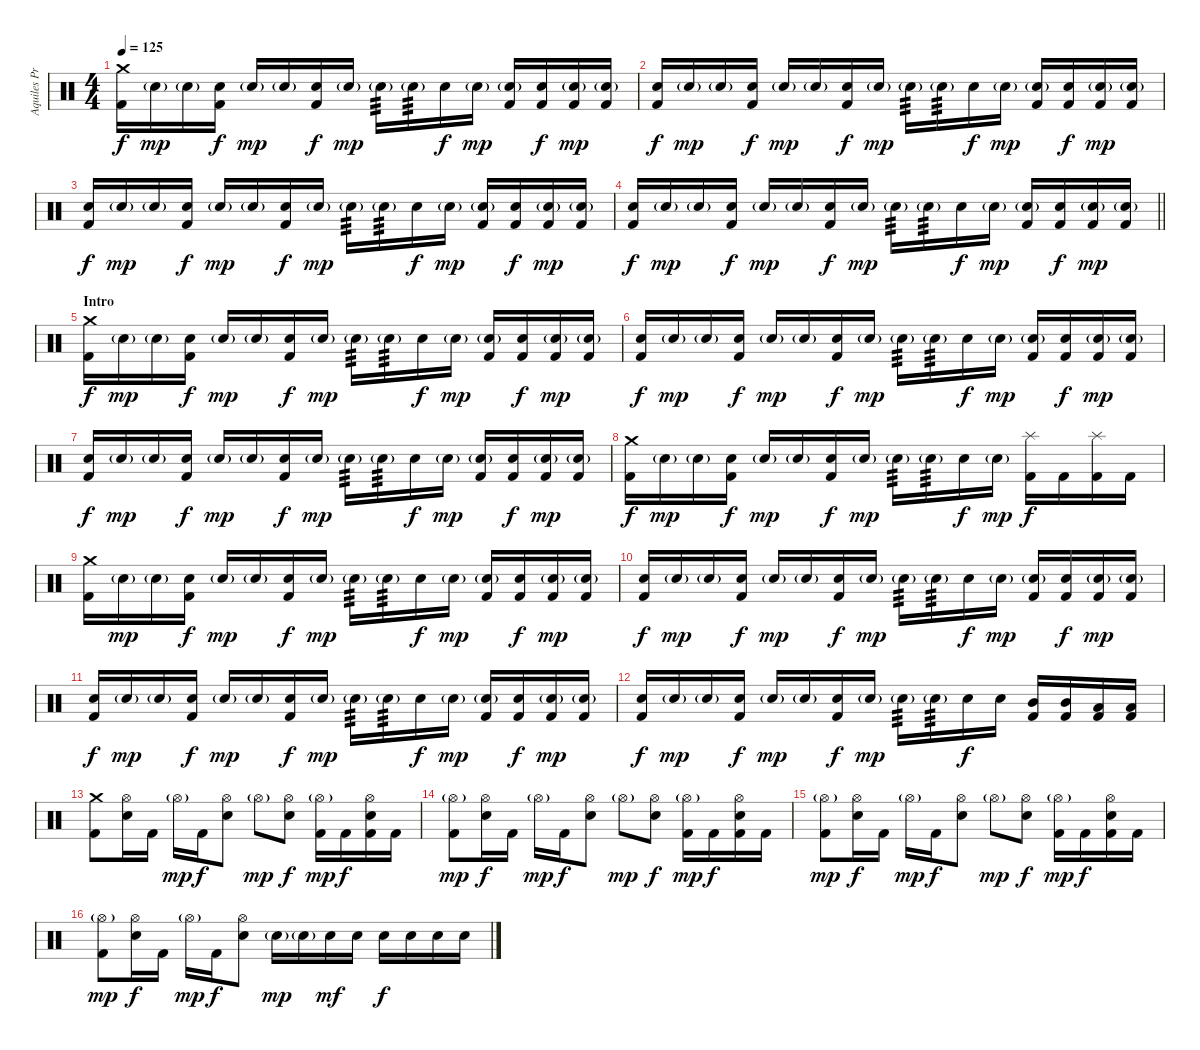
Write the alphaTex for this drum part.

\track ("Aquiles Priester" "Aquiles Pr") {instrument percussion}
\staff {score}
\articulation defaults
\ts (4 4)
\tempo 125
\clef neutral
\ks c
("Crash medium (hit)" "Kick (hit) 2").16{dy f} "Electric Snare (hit)"{g}.16{dy mp} "Electric Snare (hit)"{g}.16 ("Electric Snare (hit)" "Kick (hit) 2").16{dy f} "Electric Snare (hit)"{g}.16{dy mp} "Electric Snare (hit)"{g}.16 ("Electric Snare (hit)" "Kick (hit) 2").16{dy f} "Electric Snare (hit)"{g}.16{dy mp} "Electric Snare (hit)"{g}.16{tp 3} "Electric Snare (hit)"{g}.16{tp 3} "Electric Snare (hit)".16{dy f} "Electric Snare (hit)"{g}.16{dy mp} ("Electric Snare (hit)"{g} "Kick (hit) 2").16 ("Electric Snare (hit)" "Kick (hit) 2").16{dy f} ("Electric Snare (hit)"{g} "Kick (hit) 2").16{dy mp} ("Electric Snare (hit)"{g} "Kick (hit) 2").16 |
("Electric Snare (hit)" "Kick (hit) 2").16{dy f} "Electric Snare (hit)"{g}.16{dy mp} "Electric Snare (hit)"{g}.16 ("Electric Snare (hit)" "Kick (hit) 2").16{dy f} "Electric Snare (hit)"{g}.16{dy mp} "Electric Snare (hit)"{g}.16 ("Electric Snare (hit)" "Kick (hit) 2").16{dy f} "Electric Snare (hit)"{g}.16{dy mp} "Electric Snare (hit)"{g}.16{tp 3} "Electric Snare (hit)"{g}.16{tp 3} "Electric Snare (hit)".16{dy f} "Electric Snare (hit)"{g}.16{dy mp} ("Electric Snare (hit)"{g} "Kick (hit) 2").16 ("Electric Snare (hit)" "Kick (hit) 2").16{dy f} ("Electric Snare (hit)"{g} "Kick (hit) 2").16{dy mp} ("Electric Snare (hit)"{g} "Kick (hit) 2").16 |
("Electric Snare (hit)" "Kick (hit) 2").16{dy f} "Electric Snare (hit)"{g}.16{dy mp} "Electric Snare (hit)"{g}.16 ("Electric Snare (hit)" "Kick (hit) 2").16{dy f} "Electric Snare (hit)"{g}.16{dy mp} "Electric Snare (hit)"{g}.16 ("Electric Snare (hit)" "Kick (hit) 2").16{dy f} "Electric Snare (hit)"{g}.16{dy mp} "Electric Snare (hit)"{g}.16{tp 3} "Electric Snare (hit)"{g}.16{tp 3} "Electric Snare (hit)".16{dy f} "Electric Snare (hit)"{g}.16{dy mp} ("Electric Snare (hit)"{g} "Kick (hit) 2").16 ("Electric Snare (hit)" "Kick (hit) 2").16{dy f} ("Electric Snare (hit)"{g} "Kick (hit) 2").16{dy mp} ("Electric Snare (hit)"{g} "Kick (hit) 2").16 |
\barLineRight lightlight
("Electric Snare (hit)" "Kick (hit) 2").16{dy f} "Electric Snare (hit)"{g}.16{dy mp} "Electric Snare (hit)"{g}.16 ("Electric Snare (hit)" "Kick (hit) 2").16{dy f} "Electric Snare (hit)"{g}.16{dy mp} "Electric Snare (hit)"{g}.16 ("Electric Snare (hit)" "Kick (hit) 2").16{dy f} "Electric Snare (hit)"{g}.16{dy mp} "Electric Snare (hit)"{g}.16{tp 3} "Electric Snare (hit)"{g}.16{tp 3} "Electric Snare (hit)".16{dy f} "Electric Snare (hit)"{g}.16{dy mp} ("Electric Snare (hit)"{g} "Kick (hit) 2").16 ("Electric Snare (hit)" "Kick (hit) 2").16{dy f} ("Electric Snare (hit)"{g} "Kick (hit) 2").16{dy mp} ("Electric Snare (hit)"{g} "Kick (hit) 2").16 |
\section ("" "Intro")
("Crash medium (hit)" "Kick (hit) 2").16{dy f} "Electric Snare (hit)"{g}.16{dy mp} "Electric Snare (hit)"{g}.16 ("Electric Snare (hit)" "Kick (hit) 2").16{dy f} "Electric Snare (hit)"{g}.16{dy mp} "Electric Snare (hit)"{g}.16 ("Electric Snare (hit)" "Kick (hit) 2").16{dy f} "Electric Snare (hit)"{g}.16{dy mp} "Electric Snare (hit)"{g}.16{tp 3} "Electric Snare (hit)"{g}.16{tp 3} "Electric Snare (hit)".16{dy f} "Electric Snare (hit)"{g}.16{dy mp} ("Electric Snare (hit)"{g} "Kick (hit) 2").16 ("Electric Snare (hit)" "Kick (hit) 2").16{dy f} ("Electric Snare (hit)"{g} "Kick (hit) 2").16{dy mp} ("Electric Snare (hit)"{g} "Kick (hit) 2").16 |
("Electric Snare (hit)" "Kick (hit) 2").16{dy f} "Electric Snare (hit)"{g}.16{dy mp} "Electric Snare (hit)"{g}.16 ("Electric Snare (hit)" "Kick (hit) 2").16{dy f} "Electric Snare (hit)"{g}.16{dy mp} "Electric Snare (hit)"{g}.16 ("Electric Snare (hit)" "Kick (hit) 2").16{dy f} "Electric Snare (hit)"{g}.16{dy mp} "Electric Snare (hit)"{g}.16{tp 3} "Electric Snare (hit)"{g}.16{tp 3} "Electric Snare (hit)".16{dy f} "Electric Snare (hit)"{g}.16{dy mp} ("Electric Snare (hit)"{g} "Kick (hit) 2").16 ("Electric Snare (hit)" "Kick (hit) 2").16{dy f} ("Electric Snare (hit)"{g} "Kick (hit) 2").16{dy mp} ("Electric Snare (hit)"{g} "Kick (hit) 2").16 |
("Electric Snare (hit)" "Kick (hit) 2").16{dy f} "Electric Snare (hit)"{g}.16{dy mp} "Electric Snare (hit)"{g}.16 ("Electric Snare (hit)" "Kick (hit) 2").16{dy f} "Electric Snare (hit)"{g}.16{dy mp} "Electric Snare (hit)"{g}.16 ("Electric Snare (hit)" "Kick (hit) 2").16{dy f} "Electric Snare (hit)"{g}.16{dy mp} "Electric Snare (hit)"{g}.16{tp 3} "Electric Snare (hit)"{g}.16{tp 3} "Electric Snare (hit)".16{dy f} "Electric Snare (hit)"{g}.16{dy mp} ("Electric Snare (hit)"{g} "Kick (hit) 2").16 ("Electric Snare (hit)" "Kick (hit) 2").16{dy f} ("Electric Snare (hit)"{g} "Kick (hit) 2").16{dy mp} ("Electric Snare (hit)"{g} "Kick (hit) 2").16 |
("Crash medium (hit)" "Kick (hit) 2").16{dy f} "Electric Snare (hit)"{g}.16{dy mp} "Electric Snare (hit)"{g}.16 ("Electric Snare (hit)" "Kick (hit) 2").16{dy f} "Electric Snare (hit)"{g}.16{dy mp} "Electric Snare (hit)"{g}.16 ("Electric Snare (hit)" "Kick (hit) 2").16{dy f} "Electric Snare (hit)"{g}.16{dy mp} "Electric Snare (hit)"{g}.16{tp 3} "Electric Snare (hit)"{g}.16{tp 3} "Electric Snare (hit)".16{dy f} "Electric Snare (hit)"{g}.16{dy mp} ("Splash (hit)" "Kick (hit) 2").16{dy f} "Kick (hit) 2".16 ("Splash (hit)" "Kick (hit) 2").16 "Kick (hit) 2".16 |
("Crash medium (hit)" "Kick (hit) 2").16 "Electric Snare (hit)"{g}.16{dy mp} "Electric Snare (hit)"{g}.16 ("Electric Snare (hit)" "Kick (hit) 2").16{dy f} "Electric Snare (hit)"{g}.16{dy mp} "Electric Snare (hit)"{g}.16 ("Electric Snare (hit)" "Kick (hit) 2").16{dy f} "Electric Snare (hit)"{g}.16{dy mp} "Electric Snare (hit)"{g}.16{tp 3} "Electric Snare (hit)"{g}.16{tp 3} "Electric Snare (hit)".16{dy f} "Electric Snare (hit)"{g}.16{dy mp} ("Electric Snare (hit)"{g} "Kick (hit) 2").16 ("Electric Snare (hit)" "Kick (hit) 2").16{dy f} ("Electric Snare (hit)"{g} "Kick (hit) 2").16{dy mp} ("Electric Snare (hit)"{g} "Kick (hit) 2").16 |
("Electric Snare (hit)" "Kick (hit) 2").16{dy f} "Electric Snare (hit)"{g}.16{dy mp} "Electric Snare (hit)"{g}.16 ("Electric Snare (hit)" "Kick (hit) 2").16{dy f} "Electric Snare (hit)"{g}.16{dy mp} "Electric Snare (hit)"{g}.16 ("Electric Snare (hit)" "Kick (hit) 2").16{dy f} "Electric Snare (hit)"{g}.16{dy mp} "Electric Snare (hit)"{g}.16{tp 3} "Electric Snare (hit)"{g}.16{tp 3} "Electric Snare (hit)".16{dy f} "Electric Snare (hit)"{g}.16{dy mp} ("Electric Snare (hit)"{g} "Kick (hit) 2").16 ("Electric Snare (hit)" "Kick (hit) 2").16{dy f} ("Electric Snare (hit)"{g} "Kick (hit) 2").16{dy mp} ("Electric Snare (hit)"{g} "Kick (hit) 2").16 |
("Electric Snare (hit)" "Kick (hit) 2").16{dy f} "Electric Snare (hit)"{g}.16{dy mp} "Electric Snare (hit)"{g}.16 ("Electric Snare (hit)" "Kick (hit) 2").16{dy f} "Electric Snare (hit)"{g}.16{dy mp} "Electric Snare (hit)"{g}.16 ("Electric Snare (hit)" "Kick (hit) 2").16{dy f} "Electric Snare (hit)"{g}.16{dy mp} "Electric Snare (hit)"{g}.16{tp 3} "Electric Snare (hit)"{g}.16{tp 3} "Electric Snare (hit)".16{dy f} "Electric Snare (hit)"{g}.16{dy mp} ("Electric Snare (hit)"{g} "Kick (hit) 2").16 ("Electric Snare (hit)" "Kick (hit) 2").16{dy f} ("Electric Snare (hit)"{g} "Kick (hit) 2").16{dy mp} ("Electric Snare (hit)"{g} "Kick (hit) 2").16 |
("Electric Snare (hit)" "Kick (hit) 2").16{dy f} "Electric Snare (hit)"{g}.16{dy mp} "Electric Snare (hit)"{g}.16 ("Electric Snare (hit)" "Kick (hit) 2").16{dy f} "Electric Snare (hit)"{g}.16{dy mp} "Electric Snare (hit)"{g}.16 ("Electric Snare (hit)" "Kick (hit) 2").16{dy f} "Electric Snare (hit)"{g}.16{dy mp} "Electric Snare (hit)"{g}.16{tp 3} "Electric Snare (hit)"{g}.16{tp 3} "Electric Snare (hit)".16{dy f} "Electric Snare (hit)".16 ("Mid Tom (hit)" "Kick (hit) 2").16 ("Mid Tom (hit)" "Kick (hit) 2").16 ("Low Tom (hit)" "Kick (hit) 2").16 ("Low Tom (hit)" "Kick (hit) 2").16 |
("Crash medium (hit)" "Kick (hit) 2").8 ("Hi-Hat (open)" "Electric Snare (hit)").16 "Kick (hit) 2".16 "Hi-Hat (open)"{g}.16{dy mp} "Kick (hit) 2".16{dy f} ("Hi-Hat (open)" "Electric Snare (hit)").8 "Hi-Hat (open)"{g}.8{dy mp} ("Hi-Hat (open)" "Electric Snare (hit)").8{dy f} ("Hi-Hat (open)"{g} "Kick (hit) 2").16{dy mp} "Kick (hit) 2".16{dy f} ("Hi-Hat (open)" "Electric Snare (hit)" "Kick (hit) 2").16 "Kick (hit) 2".16 |
("Hi-Hat (open)"{g} "Kick (hit) 2").8{dy mp} ("Hi-Hat (open)" "Electric Snare (hit)").16{dy f} "Kick (hit) 2".16 "Hi-Hat (open)"{g}.16{dy mp} "Kick (hit) 2".16{dy f} ("Hi-Hat (open)" "Electric Snare (hit)").8 "Hi-Hat (open)"{g}.8{dy mp} ("Hi-Hat (open)" "Electric Snare (hit)").8{dy f} ("Hi-Hat (open)"{g} "Kick (hit) 2").16{dy mp} "Kick (hit) 2".16{dy f} ("Hi-Hat (open)" "Electric Snare (hit)" "Kick (hit) 2").16 "Kick (hit) 2".16 |
("Hi-Hat (open)"{g} "Kick (hit) 2").8{dy mp} ("Hi-Hat (open)" "Electric Snare (hit)").16{dy f} "Kick (hit) 2".16 "Hi-Hat (open)"{g}.16{dy mp} "Kick (hit) 2".16{dy f} ("Hi-Hat (open)" "Electric Snare (hit)").8 "Hi-Hat (open)"{g}.8{dy mp} ("Hi-Hat (open)" "Electric Snare (hit)").8{dy f} ("Hi-Hat (open)"{g} "Kick (hit) 2").16{dy mp} "Kick (hit) 2".16{dy f} ("Hi-Hat (open)" "Electric Snare (hit)" "Kick (hit) 2").16 "Kick (hit) 2".16 |
("Hi-Hat (open)"{g} "Kick (hit) 2").8{dy mp} ("Hi-Hat (open)" "Electric Snare (hit)").16{dy f} "Kick (hit) 2".16 "Hi-Hat (open)"{g}.16{dy mp} "Kick (hit) 2".16{dy f} ("Hi-Hat (open)" "Electric Snare (hit)").8 "Electric Snare (hit)"{g}.16{dy mp} "Electric Snare (hit)"{g}.16 "Electric Snare (hit)".16{dy mf} "Electric Snare (hit)".16 "Electric Snare (hit)".16{dy f} "Electric Snare (hit)".16 "Electric Snare (hit)".16 "Electric Snare (hit)".16
